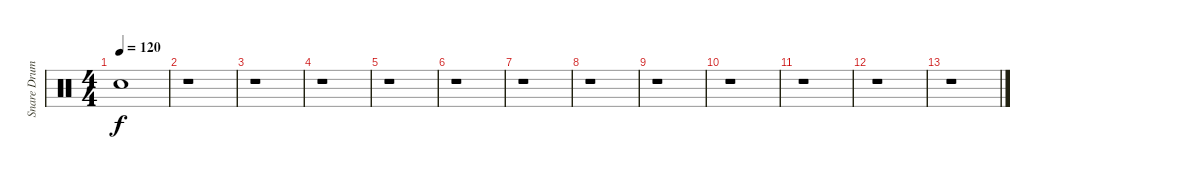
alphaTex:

\track ("Snare Drum" "Snare Drum") {instrument percussion}
\staff {score}
\articulation defaults
\ts (4 4)
\tempo 120
\clef neutral
\ks c "Snare (hit) 2".1{dy f}
|
r.1 |
r.1 |
r.1 |
r.1 |
r.1 |
r.1 |
r.1 |
r.1 |
r.1 |
r.1 |
r.1 |
r.1
